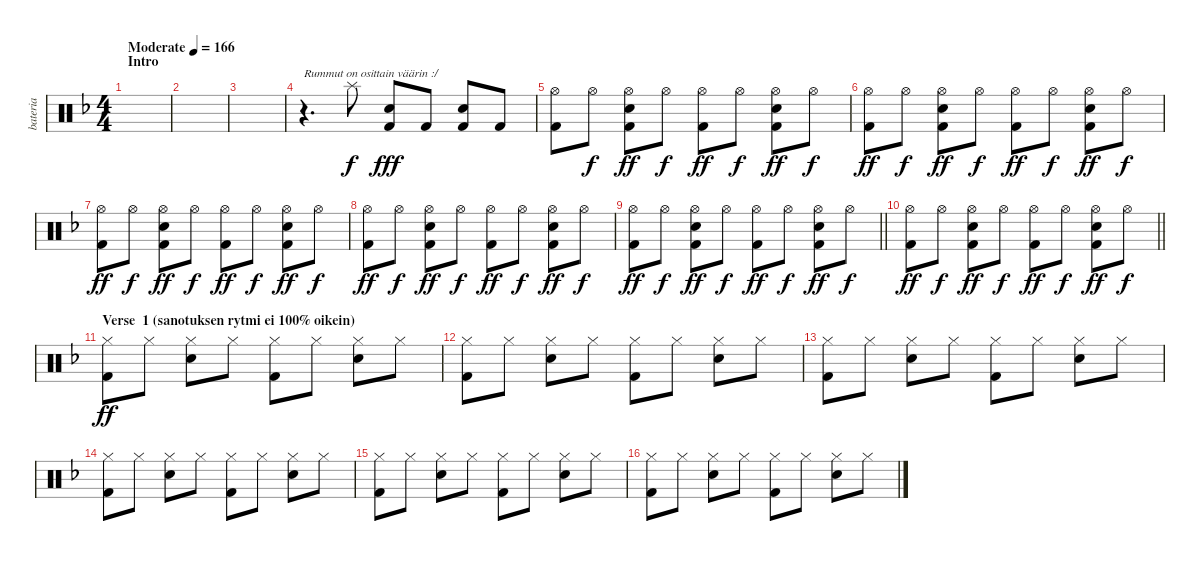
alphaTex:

\track ("bateria" "bateria") {instrument percussion}
\staff {score}
\articulation defaults
\ts (4 4)
\section ("" "Intro")
\tempo (166 "Moderate")
\clef neutral
\ks f
|
|
|
r.4{d txt "Rummut on osittain väärin :/"} "Splash (hit)".8 ("Electric Snare (hit)" "Kick (hit) 2").8{dy fff} "Kick (hit) 2".8 ("Electric Snare (hit)" "Kick (hit) 2").8 "Kick (hit) 2".8 |
("Hi-Hat (open)" "Kick (hit) 2").8 "Hi-Hat (open)".8{dy f} ("Hi-Hat (open)" "Kick (hit) 2" "Electric Snare (hit)").8{dy ff} "Hi-Hat (open)".8{dy f} ("Hi-Hat (open)" "Kick (hit) 2").8{dy ff} "Hi-Hat (open)".8{dy f} ("Hi-Hat (open)" "Kick (hit) 2" "Electric Snare (hit)").8{dy ff} "Hi-Hat (open)".8{dy f} |
("Hi-Hat (open)" "Kick (hit) 2").8{dy ff} "Hi-Hat (open)".8{dy f} ("Hi-Hat (open)" "Kick (hit) 2" "Electric Snare (hit)").8{dy ff} "Hi-Hat (open)".8{dy f} ("Hi-Hat (open)" "Kick (hit) 2").8{dy ff} "Hi-Hat (open)".8{dy f} ("Hi-Hat (open)" "Kick (hit) 2" "Electric Snare (hit)").8{dy ff} "Hi-Hat (open)".8{dy f} |
("Hi-Hat (open)" "Kick (hit) 2").8{dy ff} "Hi-Hat (open)".8{dy f} ("Hi-Hat (open)" "Kick (hit) 2" "Electric Snare (hit)").8{dy ff} "Hi-Hat (open)".8{dy f} ("Hi-Hat (open)" "Kick (hit) 2").8{dy ff} "Hi-Hat (open)".8{dy f} ("Hi-Hat (open)" "Kick (hit) 2" "Electric Snare (hit)").8{dy ff} "Hi-Hat (open)".8{dy f} |
("Hi-Hat (open)" "Kick (hit) 2").8{dy ff} "Hi-Hat (open)".8{dy f} ("Hi-Hat (open)" "Kick (hit) 2" "Electric Snare (hit)").8{dy ff} "Hi-Hat (open)".8{dy f} ("Hi-Hat (open)" "Kick (hit) 2").8{dy ff} "Hi-Hat (open)".8{dy f} ("Hi-Hat (open)" "Kick (hit) 2" "Electric Snare (hit)").8{dy ff} "Hi-Hat (open)".8{dy f} |
\barLineRight lightlight
("Hi-Hat (open)" "Kick (hit) 2").8{dy ff} "Hi-Hat (open)".8{dy f} ("Hi-Hat (open)" "Kick (hit) 2" "Electric Snare (hit)").8{dy ff} "Hi-Hat (open)".8{dy f} ("Hi-Hat (open)" "Kick (hit) 2").8{dy ff} "Hi-Hat (open)".8{dy f} ("Hi-Hat (open)" "Kick (hit) 2" "Electric Snare (hit)").8{dy ff} "Hi-Hat (open)".8{dy f} |
\section ("" "")
\barLineRight lightlight
("Hi-Hat (open)" "Kick (hit) 2").8{dy ff} "Hi-Hat (open)".8{dy f} ("Hi-Hat (open)" "Kick (hit) 2" "Electric Snare (hit)").8{dy ff} "Hi-Hat (open)".8{dy f} ("Hi-Hat (open)" "Kick (hit) 2").8{dy ff} "Hi-Hat (open)".8{dy f} ("Hi-Hat (open)" "Kick (hit) 2" "Electric Snare (hit)").8{dy ff} "Hi-Hat (open)".8{dy f} |
\section ("" "Verse  1 (sanotuksen rytmi ei 100% oikein)")
("Hi-Hat (closed)" "Kick (hit) 2").8{dy ff} "Hi-Hat (closed)".8 ("Hi-Hat (closed)" "Electric Snare (hit)").8 "Hi-Hat (closed)".8 ("Hi-Hat (closed)" "Kick (hit) 2").8 "Hi-Hat (closed)".8 ("Hi-Hat (closed)" "Electric Snare (hit)").8 "Hi-Hat (closed)".8 |
("Hi-Hat (closed)" "Kick (hit) 2").8 "Hi-Hat (closed)".8 ("Hi-Hat (closed)" "Electric Snare (hit)").8 "Hi-Hat (closed)".8 ("Hi-Hat (closed)" "Kick (hit) 2").8 "Hi-Hat (closed)".8 ("Hi-Hat (closed)" "Electric Snare (hit)").8 "Hi-Hat (closed)".8 |
("Hi-Hat (closed)" "Kick (hit) 2").8 "Hi-Hat (closed)".8 ("Hi-Hat (closed)" "Electric Snare (hit)").8 "Hi-Hat (closed)".8 ("Hi-Hat (closed)" "Kick (hit) 2").8 "Hi-Hat (closed)".8 ("Hi-Hat (closed)" "Electric Snare (hit)").8 "Hi-Hat (closed)".8 |
("Hi-Hat (closed)" "Kick (hit) 2").8 "Hi-Hat (closed)".8 ("Hi-Hat (closed)" "Electric Snare (hit)").8 "Hi-Hat (closed)".8 ("Hi-Hat (closed)" "Kick (hit) 2").8 "Hi-Hat (closed)".8 ("Hi-Hat (closed)" "Electric Snare (hit)").8 "Hi-Hat (closed)".8 |
("Hi-Hat (closed)" "Kick (hit) 2").8 "Hi-Hat (closed)".8 ("Hi-Hat (closed)" "Electric Snare (hit)").8 "Hi-Hat (closed)".8 ("Hi-Hat (closed)" "Kick (hit) 2").8 "Hi-Hat (closed)".8 ("Hi-Hat (closed)" "Electric Snare (hit)").8 "Hi-Hat (closed)".8 |
("Hi-Hat (closed)" "Kick (hit) 2").8 "Hi-Hat (closed)".8 ("Hi-Hat (closed)" "Electric Snare (hit)").8 "Hi-Hat (closed)".8 ("Hi-Hat (closed)" "Kick (hit) 2").8 "Hi-Hat (closed)".8 ("Hi-Hat (closed)" "Electric Snare (hit)").8 "Hi-Hat (closed)".8
